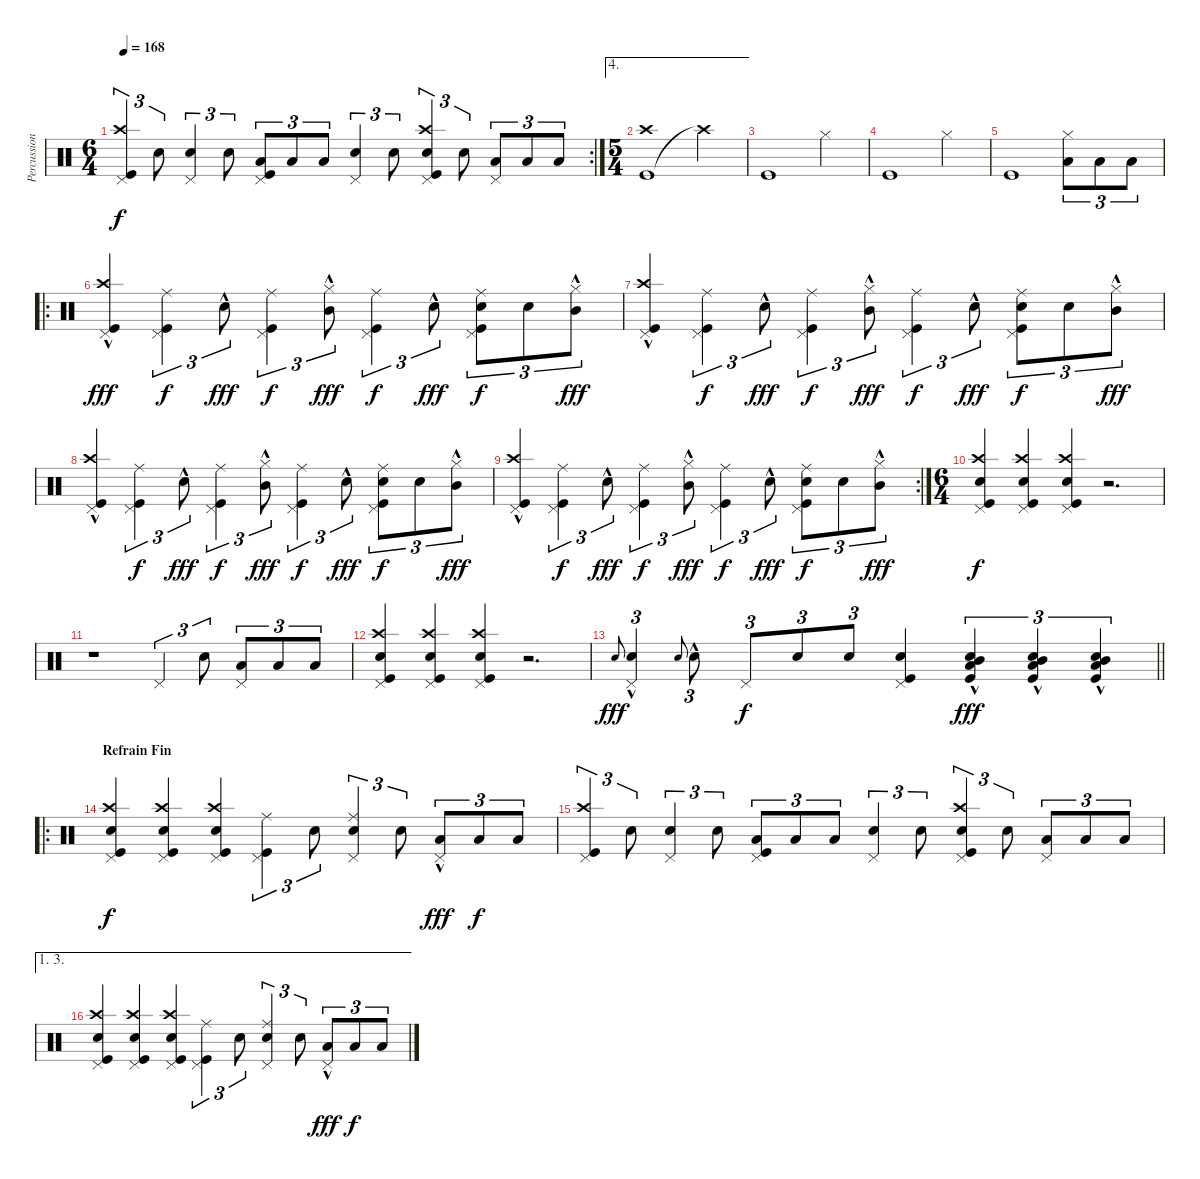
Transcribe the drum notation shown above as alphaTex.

\track ("Percussions" "Percussion") {instrument percussion}
\staff {score}
\articulation defaults
\rc 2
\ts (6 4)
\tempo 168
\clef neutral
\ks c
("Kick (hit)" "Crash high (hit)" "Pedal Hi-Hat (hit)").4{tu (3 2) dy f} "Snare (hit) 2".8{tu (3 2)} ("Snare (hit) 2" "Pedal Hi-Hat (hit)").4{tu (3 2)} "Snare (hit) 2".8{tu (3 2) beam split} ("Low Tom (hit)" "Kick (hit)" "Pedal Hi-Hat (hit)").8{tu (3 2)} "Low Tom (hit)".8{tu (3 2)} "Low Tom (hit)".8{tu (3 2)} ("Snare (hit) 2" "Pedal Hi-Hat (hit)").4{tu (3 2)} "Snare (hit) 2".8{tu (3 2)} ("Kick (hit)" "Crash high (hit)" "Snare (hit) 2" "Pedal Hi-Hat (hit)").4{tu (3 2)} "Snare (hit) 2".8{tu (3 2) beam split} ("Low Tom (hit)" "Pedal Hi-Hat (hit)").8{tu (3 2)} "Low Tom (hit)".8{tu (3 2)} "Low Tom (hit)".8{tu (3 2)} |
\ae 4
\ts (5 4)
("Kick (hit)" "Crash high (hit)").1 "Crash high (hit)"{t}.4 |
"Kick (hit)".1 "Hi-Hat (closed)".4 |
"Kick (hit)".1 "Hi-Hat (closed)".4 |
"Kick (hit)".1 ("Hi-Hat (closed)" "Low Tom (hit)").8{tu (3 2)} "Low Tom (hit)".8{tu (3 2)} "Low Tom (hit)".8{tu (3 2)} |
\ro
("Kick (hit)" "Crash high (hit)"{hac} "Pedal Hi-Hat (hit)").4{dy fff volume 16} ("Kick (hit)" "Ride (middle)" "Pedal Hi-Hat (hit)").4{tu (3 2) dy f} "Snare (hit) 2"{hac}.8{tu (3 2) dy fff} ("Kick (hit)" "Ride (middle)" "Pedal Hi-Hat (hit)").4{tu (3 2) dy f} ("Hi-Hat (closed)" "Mid Tom (hit)"{hac}).8{tu (3 2) dy fff} ("Kick (hit)" "Ride (middle)" "Pedal Hi-Hat (hit)").4{tu (3 2) dy f} "Snare (hit) 2"{hac}.8{tu (3 2) dy fff} ("Kick (hit)" "Ride (middle)" "Pedal Hi-Hat (hit)" "Snare (hit) 2").8{tu (3 2) dy f} "Snare (hit) 2".8{tu (3 2)} ("Hi-Hat (closed)" "Mid Tom (hit)"{hac}).8{tu (3 2) dy fff} |
("Kick (hit)" "Crash high (hit)"{hac} "Pedal Hi-Hat (hit)").4 ("Kick (hit)" "Ride (middle)" "Pedal Hi-Hat (hit)").4{tu (3 2) dy f} "Snare (hit) 2"{hac}.8{tu (3 2) dy fff} ("Kick (hit)" "Ride (middle)" "Pedal Hi-Hat (hit)").4{tu (3 2) dy f} ("Hi-Hat (closed)" "Mid Tom (hit)"{hac}).8{tu (3 2) dy fff} ("Kick (hit)" "Ride (middle)" "Pedal Hi-Hat (hit)").4{tu (3 2) dy f} "Snare (hit) 2"{hac}.8{tu (3 2) dy fff} ("Kick (hit)" "Ride (middle)" "Pedal Hi-Hat (hit)" "Snare (hit) 2").8{tu (3 2) dy f} "Snare (hit) 2".8{tu (3 2)} ("Hi-Hat (closed)" "Mid Tom (hit)"{hac}).8{tu (3 2) dy fff} |
("Kick (hit)" "Crash high (hit)"{hac} "Pedal Hi-Hat (hit)").4 ("Kick (hit)" "Ride (middle)" "Pedal Hi-Hat (hit)").4{tu (3 2) dy f} "Snare (hit) 2"{hac}.8{tu (3 2) dy fff} ("Kick (hit)" "Ride (middle)" "Pedal Hi-Hat (hit)").4{tu (3 2) dy f} ("Hi-Hat (closed)" "Mid Tom (hit)"{hac}).8{tu (3 2) dy fff} ("Kick (hit)" "Ride (middle)" "Pedal Hi-Hat (hit)").4{tu (3 2) dy f} "Snare (hit) 2"{hac}.8{tu (3 2) dy fff} ("Kick (hit)" "Ride (middle)" "Pedal Hi-Hat (hit)" "Snare (hit) 2").8{tu (3 2) dy f} "Snare (hit) 2".8{tu (3 2)} ("Hi-Hat (closed)" "Mid Tom (hit)"{hac}).8{tu (3 2) dy fff} |
\rc 2
("Kick (hit)" "Crash high (hit)"{hac} "Pedal Hi-Hat (hit)").4 ("Kick (hit)" "Ride (middle)" "Pedal Hi-Hat (hit)").4{tu (3 2) dy f} "Snare (hit) 2"{hac}.8{tu (3 2) dy fff} ("Kick (hit)" "Ride (middle)" "Pedal Hi-Hat (hit)").4{tu (3 2) dy f} ("Hi-Hat (closed)" "Mid Tom (hit)"{hac}).8{tu (3 2) dy fff} ("Kick (hit)" "Ride (middle)" "Pedal Hi-Hat (hit)").4{tu (3 2) dy f} "Snare (hit) 2"{hac}.8{tu (3 2) dy fff} ("Kick (hit)" "Ride (middle)" "Pedal Hi-Hat (hit)" "Snare (hit) 2").8{tu (3 2) dy f} "Snare (hit) 2".8{tu (3 2)} ("Hi-Hat (closed)" "Mid Tom (hit)"{hac}).8{tu (3 2) dy fff} |
\ts (6 4)
("Kick (hit)" "Crash high (hit)" "Snare (hit) 2" "Pedal Hi-Hat (hit)").4{dy f} ("Kick (hit)" "Crash high (hit)" "Snare (hit) 2" "Pedal Hi-Hat (hit)").4 ("Kick (hit)" "Crash high (hit)" "Snare (hit) 2" "Pedal Hi-Hat (hit)").4 r.2{d} |
r.1 "Pedal Hi-Hat (hit)".4{tu (3 2)} "Snare (hit) 2".8{tu (3 2) beam split} ("Low Tom (hit)" "Pedal Hi-Hat (hit)").8{tu (3 2)} "Low Tom (hit)".8{tu (3 2)} "Low Tom (hit)".8{tu (3 2)} |
("Kick (hit)" "Crash high (hit)" "Snare (hit) 2" "Pedal Hi-Hat (hit)").4 ("Kick (hit)" "Crash high (hit)" "Snare (hit) 2" "Pedal Hi-Hat (hit)").4 ("Kick (hit)" "Crash high (hit)" "Snare (hit) 2" "Pedal Hi-Hat (hit)").4 r.2{d} |
\barLineRight lightlight "Snare (hit) 2".8{gr onbeat dy fff}
("Snare (hit) 2"{hac} "Pedal Hi-Hat (hit)").4{tu (3 2)} "Snare (hit) 2".8{gr onbeat} "Snare (hit) 2"{hac}.8{tu (3 2) beam split} "Pedal Hi-Hat (hit)".8{tu (3 2) dy f} "Snare (hit) 2".8{tu (3 2)} "Snare (hit) 2".8{tu (3 2)} ("Kick (hit)" "Snare (hit) 2" "Pedal Hi-Hat (hit)").4 ("Snare (hit) 2" "Low Floor Tom (hit)"{hac} "Kick (hit)" "Mid Tom (hit)").4{tu (3 2) dy fff} ("Snare (hit) 2" "Low Floor Tom (hit)"{hac} "Kick (hit)" "Mid Tom (hit)").4{tu (3 2)} ("Snare (hit) 2" "Low Floor Tom (hit)"{hac} "Kick (hit)" "Mid Tom (hit)").4{tu (3 2)} |
\ro
\section ("" "Refrain Fin")
("Kick (hit)" "Crash high (hit)" "Snare (hit) 2" "Pedal Hi-Hat (hit)").4{dy f} ("Kick (hit)" "Crash high (hit)" "Snare (hit) 2" "Pedal Hi-Hat (hit)").4 ("Kick (hit)" "Crash high (hit)" "Snare (hit) 2" "Pedal Hi-Hat (hit)").4 ("Kick (hit)" "Ride (middle)" "Pedal Hi-Hat (hit)").4{tu (3 2)} "Snare (hit) 2".8{tu (3 2)} ("Snare (hit) 2" "Ride (middle)" "Pedal Hi-Hat (hit)").4{tu (3 2)} "Snare (hit) 2".8{tu (3 2) beam split} ("Low Tom (hit)" "Pedal Hi-Hat (hit)"{hac}).8{tu (3 2) dy fff} "Low Tom (hit)".8{tu (3 2) dy f} "Low Tom (hit)".8{tu (3 2)} |
("Kick (hit)" "Crash high (hit)" "Pedal Hi-Hat (hit)").4{tu (3 2)} "Snare (hit) 2".8{tu (3 2)} ("Snare (hit) 2" "Pedal Hi-Hat (hit)").4{tu (3 2)} "Snare (hit) 2".8{tu (3 2) beam split} ("Low Tom (hit)" "Kick (hit)" "Pedal Hi-Hat (hit)").8{tu (3 2)} "Low Tom (hit)".8{tu (3 2)} "Low Tom (hit)".8{tu (3 2)} ("Snare (hit) 2" "Pedal Hi-Hat (hit)").4{tu (3 2)} "Snare (hit) 2".8{tu (3 2)} ("Kick (hit)" "Crash high (hit)" "Snare (hit) 2" "Pedal Hi-Hat (hit)").4{tu (3 2)} "Snare (hit) 2".8{tu (3 2) beam split} ("Low Tom (hit)" "Pedal Hi-Hat (hit)").8{tu (3 2)} "Low Tom (hit)".8{tu (3 2)} "Low Tom (hit)".8{tu (3 2)} |
\ae (1 3)
("Kick (hit)" "Crash high (hit)" "Snare (hit) 2" "Pedal Hi-Hat (hit)").4 ("Kick (hit)" "Crash high (hit)" "Snare (hit) 2" "Pedal Hi-Hat (hit)").4 ("Kick (hit)" "Crash high (hit)" "Snare (hit) 2" "Pedal Hi-Hat (hit)").4 ("Kick (hit)" "Ride (middle)" "Pedal Hi-Hat (hit)").4{tu (3 2)} "Snare (hit) 2".8{tu (3 2)} ("Snare (hit) 2" "Ride (middle)" "Pedal Hi-Hat (hit)").4{tu (3 2)} "Snare (hit) 2".8{tu (3 2) beam split} ("Low Tom (hit)" "Pedal Hi-Hat (hit)"{hac}).8{tu (3 2) dy fff} "Low Tom (hit)".8{tu (3 2) dy f} "Low Tom (hit)".8{tu (3 2)}
